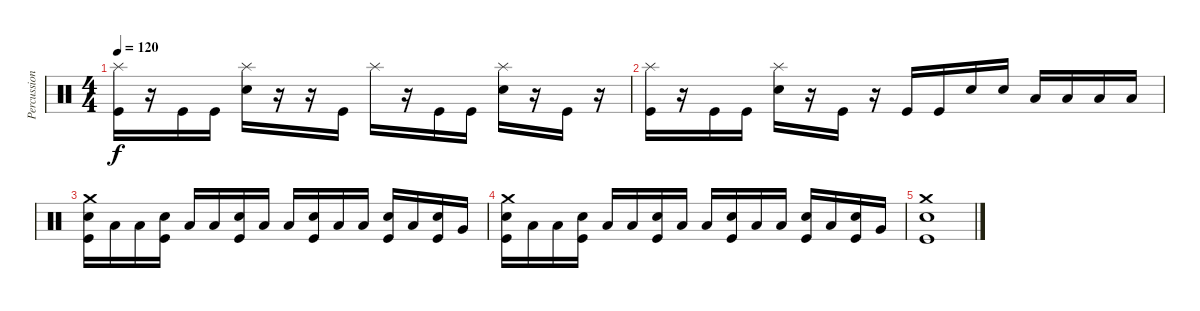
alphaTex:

\track ("Percussion" "Percussion") {instrument percussion}
\staff {score}
\articulation defaults
\ts (4 4)
\tempo 120
\clef neutral
\ks c
("Splash (hit)" "Kick (hit)").16{dy f} r.16 "Kick (hit)".16 "Kick (hit)".16 ("Splash (hit)" "Electric Snare (hit)").16 r.16 r.16 "Kick (hit)".16 "Splash (hit)".16 r.16 "Kick (hit)".16 "Kick (hit)".16 ("Splash (hit)" "Electric Snare (hit)").16 r.16 "Kick (hit)".16 r.16 |
("Splash (hit)" "Kick (hit)").16 r.16 "Kick (hit)".16 "Kick (hit)".16 ("Splash (hit)" "Electric Snare (hit)").16 r.16 "Kick (hit)".16 r.16 "Kick (hit)".16 "Kick (hit)".16 "Electric Snare (hit)".16 "Electric Snare (hit)".16 "Low Tom (hit)".16 "Low Tom (hit)".16 "Low Tom (hit)".16 "Low Tom (hit)".16 |
("Crash medium (hit)" "Electric Snare (hit)" "Kick (hit)").16 "Low Tom (hit)".16 "Low Tom (hit)".16 ("Electric Snare (hit)" "Kick (hit)").16 "Low Tom (hit)".16 "Low Tom (hit)".16 ("Electric Snare (hit)" "Kick (hit)").16 "Low Tom (hit)".16 "Low Tom (hit)".16 ("Electric Snare (hit)" "Kick (hit)").16 "Low Tom (hit)".16 "Low Tom (hit)".16 ("Electric Snare (hit)" "Kick (hit)").16 "Low Tom (hit)".16 ("Electric Snare (hit)" "Kick (hit)").16 "Very Low Tom (hit)".16 |
("Crash medium (hit)" "Electric Snare (hit)" "Kick (hit)").16 "Low Tom (hit)".16 "Low Tom (hit)".16 ("Electric Snare (hit)" "Kick (hit)").16 "Low Tom (hit)".16 "Low Tom (hit)".16 ("Electric Snare (hit)" "Kick (hit)").16 "Low Tom (hit)".16 "Low Tom (hit)".16 ("Electric Snare (hit)" "Kick (hit)").16 "Low Tom (hit)".16 "Low Tom (hit)".16 ("Electric Snare (hit)" "Kick (hit)").16 "Low Tom (hit)".16 ("Electric Snare (hit)" "Kick (hit)").16 "Very Low Tom (hit)".16 |
("Crash medium (hit)" "Electric Snare (hit)" "Kick (hit)").1
